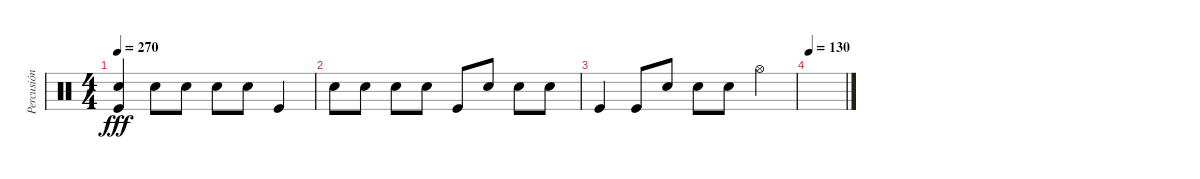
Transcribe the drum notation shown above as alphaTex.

\track ("Percusión" "Percusión") {instrument percussion}
\staff {score}
\articulation defaults
\ts (4 4)
\tempo 270
\clef neutral
\ks c
("Snare (hit) 2" "Kick (hit)").4{dy fff} "Snare (hit) 2".8 "Snare (hit) 2".8 "Snare (hit) 2".8 "Snare (hit) 2".8 "Kick (hit)".4 |
"Snare (hit) 2".8 "Snare (hit) 2".8 "Snare (hit) 2".8 "Snare (hit) 2".8 "Kick (hit)".8 "Snare (hit) 2".8 "Snare (hit) 2".8 "Snare (hit) 2".8 |
"Kick (hit)".4 "Kick (hit)".8 "Snare (hit) 2".8 "Snare (hit) 2".8 "Snare (hit) 2".8 "Hi-Hat (open)".4 |
\tempo 140
\tempo 130
